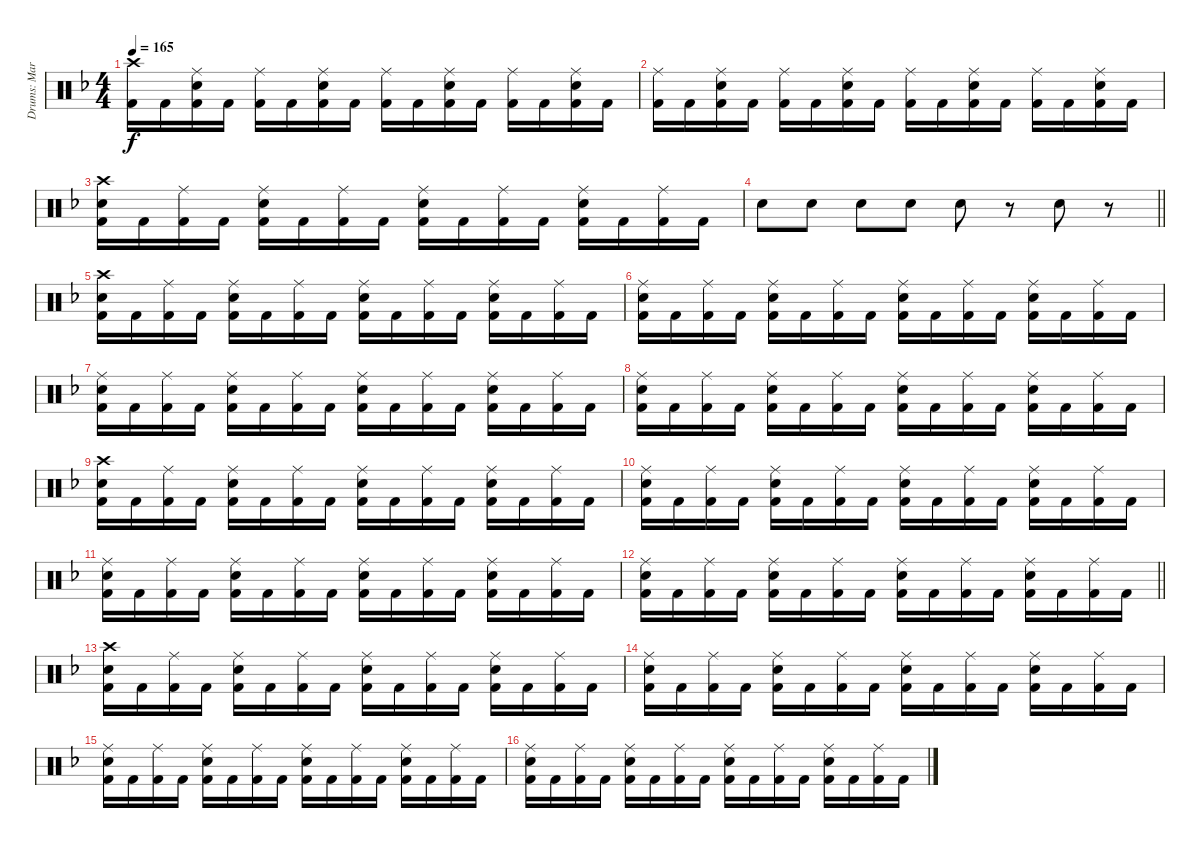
\track ("Drums: Martin Herzinger" "Drums: Mar") {instrument percussion}
\staff {score}
\articulation defaults
\ts (4 4)
\tempo 165
\clef neutral
\ks dminor
("Crash high (hit)" "Kick (hit) 2").16{dy f} "Kick (hit) 2".16 ("Ride (middle)" "Snare (hit) 2" "Kick (hit) 2").16 "Kick (hit) 2".16 ("Ride (middle)" "Kick (hit) 2").16 "Kick (hit) 2".16 ("Ride (middle)" "Snare (hit) 2" "Kick (hit) 2").16 "Kick (hit) 2".16 ("Ride (middle)" "Kick (hit) 2").16 "Kick (hit) 2".16 ("Ride (middle)" "Snare (hit) 2" "Kick (hit) 2").16 "Kick (hit) 2".16 ("Ride (middle)" "Kick (hit) 2").16 "Kick (hit) 2".16 ("Ride (middle)" "Snare (hit) 2" "Kick (hit) 2").16 "Kick (hit) 2".16 |
("Ride (middle)" "Kick (hit) 2").16 "Kick (hit) 2".16 ("Ride (middle)" "Snare (hit) 2" "Kick (hit) 2").16 "Kick (hit) 2".16 ("Ride (middle)" "Kick (hit) 2").16 "Kick (hit) 2".16 ("Ride (middle)" "Snare (hit) 2" "Kick (hit) 2").16 "Kick (hit) 2".16 ("Ride (middle)" "Kick (hit) 2").16 "Kick (hit) 2".16 ("Ride (middle)" "Snare (hit) 2" "Kick (hit) 2").16 "Kick (hit) 2".16 ("Ride (middle)" "Kick (hit) 2").16 "Kick (hit) 2".16 ("Ride (middle)" "Snare (hit) 2" "Kick (hit) 2").16 "Kick (hit) 2".16 |
("Crash high (hit)" "Snare (hit) 2" "Kick (hit) 2").16 "Kick (hit) 2".16 ("Ride (middle)" "Kick (hit) 2").16 "Kick (hit) 2".16 ("Ride (middle)" "Snare (hit) 2" "Kick (hit) 2").16 "Kick (hit) 2".16 ("Ride (middle)" "Kick (hit) 2").16 "Kick (hit) 2".16 ("Ride (middle)" "Snare (hit) 2" "Kick (hit) 2").16 "Kick (hit) 2".16 ("Ride (middle)" "Kick (hit) 2").16 "Kick (hit) 2".16 ("Ride (middle)" "Snare (hit) 2" "Kick (hit) 2").16 "Kick (hit) 2".16 ("Ride (middle)" "Kick (hit) 2").16 "Kick (hit) 2".16 |
\barLineRight lightlight "Snare (hit) 2".8 "Snare (hit) 2".8 "Snare (hit) 2".8 "Snare (hit) 2".8 "Snare (hit) 2".8
r.8 "Snare (hit) 2".8 r.8 |
("Crash high (hit)" "Snare (hit) 2" "Kick (hit) 2").16 "Kick (hit) 2".16 ("Ride (middle)" "Kick (hit) 2").16 "Kick (hit) 2".16 ("Ride (middle)" "Snare (hit) 2" "Kick (hit) 2").16 "Kick (hit) 2".16 ("Ride (middle)" "Kick (hit) 2").16 "Kick (hit) 2".16 ("Ride (middle)" "Snare (hit) 2" "Kick (hit) 2").16 "Kick (hit) 2".16 ("Ride (middle)" "Kick (hit) 2").16 "Kick (hit) 2".16 ("Ride (middle)" "Snare (hit) 2" "Kick (hit) 2").16 "Kick (hit) 2".16 ("Ride (middle)" "Kick (hit) 2").16 "Kick (hit) 2".16 |
("Ride (middle)" "Snare (hit) 2" "Kick (hit) 2").16 "Kick (hit) 2".16 ("Ride (middle)" "Kick (hit) 2").16 "Kick (hit) 2".16 ("Ride (middle)" "Snare (hit) 2" "Kick (hit) 2").16 "Kick (hit) 2".16 ("Ride (middle)" "Kick (hit) 2").16 "Kick (hit) 2".16 ("Ride (middle)" "Snare (hit) 2" "Kick (hit) 2").16 "Kick (hit) 2".16 ("Ride (middle)" "Kick (hit) 2").16 "Kick (hit) 2".16 ("Ride (middle)" "Snare (hit) 2" "Kick (hit) 2").16 "Kick (hit) 2".16 ("Ride (middle)" "Kick (hit) 2").16 "Kick (hit) 2".16 |
("Ride (middle)" "Snare (hit) 2" "Kick (hit) 2").16 "Kick (hit) 2".16 ("Ride (middle)" "Kick (hit) 2").16 "Kick (hit) 2".16 ("Ride (middle)" "Snare (hit) 2" "Kick (hit) 2").16 "Kick (hit) 2".16 ("Ride (middle)" "Kick (hit) 2").16 "Kick (hit) 2".16 ("Ride (middle)" "Snare (hit) 2" "Kick (hit) 2").16 "Kick (hit) 2".16 ("Ride (middle)" "Kick (hit) 2").16 "Kick (hit) 2".16 ("Ride (middle)" "Snare (hit) 2" "Kick (hit) 2").16 "Kick (hit) 2".16 ("Ride (middle)" "Kick (hit) 2").16 "Kick (hit) 2".16 |
("Ride (middle)" "Snare (hit) 2" "Kick (hit) 2").16 "Kick (hit) 2".16 ("Ride (middle)" "Kick (hit) 2").16 "Kick (hit) 2".16 ("Ride (middle)" "Snare (hit) 2" "Kick (hit) 2").16 "Kick (hit) 2".16 ("Ride (middle)" "Kick (hit) 2").16 "Kick (hit) 2".16 ("Ride (middle)" "Snare (hit) 2" "Kick (hit) 2").16 "Kick (hit) 2".16 ("Ride (middle)" "Kick (hit) 2").16 "Kick (hit) 2".16 ("Ride (middle)" "Snare (hit) 2" "Kick (hit) 2").16 "Kick (hit) 2".16 ("Ride (middle)" "Kick (hit) 2").16 "Kick (hit) 2".16 |
("Crash high (hit)" "Snare (hit) 2" "Kick (hit) 2").16 "Kick (hit) 2".16 ("Ride (middle)" "Kick (hit) 2").16 "Kick (hit) 2".16 ("Ride (middle)" "Snare (hit) 2" "Kick (hit) 2").16 "Kick (hit) 2".16 ("Ride (middle)" "Kick (hit) 2").16 "Kick (hit) 2".16 ("Ride (middle)" "Snare (hit) 2" "Kick (hit) 2").16 "Kick (hit) 2".16 ("Ride (middle)" "Kick (hit) 2").16 "Kick (hit) 2".16 ("Ride (middle)" "Snare (hit) 2" "Kick (hit) 2").16 "Kick (hit) 2".16 ("Ride (middle)" "Kick (hit) 2").16 "Kick (hit) 2".16 |
("Ride (middle)" "Snare (hit) 2" "Kick (hit) 2").16 "Kick (hit) 2".16 ("Ride (middle)" "Kick (hit) 2").16 "Kick (hit) 2".16 ("Ride (middle)" "Snare (hit) 2" "Kick (hit) 2").16 "Kick (hit) 2".16 ("Ride (middle)" "Kick (hit) 2").16 "Kick (hit) 2".16 ("Ride (middle)" "Snare (hit) 2" "Kick (hit) 2").16 "Kick (hit) 2".16 ("Ride (middle)" "Kick (hit) 2").16 "Kick (hit) 2".16 ("Ride (middle)" "Snare (hit) 2" "Kick (hit) 2").16 "Kick (hit) 2".16 ("Ride (middle)" "Kick (hit) 2").16 "Kick (hit) 2".16 |
("Ride (middle)" "Snare (hit) 2" "Kick (hit) 2").16 "Kick (hit) 2".16 ("Ride (middle)" "Kick (hit) 2").16 "Kick (hit) 2".16 ("Ride (middle)" "Snare (hit) 2" "Kick (hit) 2").16 "Kick (hit) 2".16 ("Ride (middle)" "Kick (hit) 2").16 "Kick (hit) 2".16 ("Ride (middle)" "Snare (hit) 2" "Kick (hit) 2").16 "Kick (hit) 2".16 ("Ride (middle)" "Kick (hit) 2").16 "Kick (hit) 2".16 ("Ride (middle)" "Snare (hit) 2" "Kick (hit) 2").16 "Kick (hit) 2".16 ("Ride (middle)" "Kick (hit) 2").16 "Kick (hit) 2".16 |
\barLineRight lightlight
("Ride (middle)" "Snare (hit) 2" "Kick (hit) 2").16 "Kick (hit) 2".16 ("Ride (middle)" "Kick (hit) 2").16 "Kick (hit) 2".16 ("Ride (middle)" "Snare (hit) 2" "Kick (hit) 2").16 "Kick (hit) 2".16 ("Ride (middle)" "Kick (hit) 2").16 "Kick (hit) 2".16 ("Ride (middle)" "Snare (hit) 2" "Kick (hit) 2").16 "Kick (hit) 2".16 ("Ride (middle)" "Kick (hit) 2").16 "Kick (hit) 2".16 ("Ride (middle)" "Snare (hit) 2" "Kick (hit) 2").16 "Kick (hit) 2".16 ("Ride (middle)" "Kick (hit) 2").16 "Kick (hit) 2".16 |
("Crash high (hit)" "Snare (hit) 2" "Kick (hit) 2").16 "Kick (hit) 2".16 ("Ride (middle)" "Kick (hit) 2").16 "Kick (hit) 2".16 ("Ride (middle)" "Snare (hit) 2" "Kick (hit) 2").16 "Kick (hit) 2".16 ("Ride (middle)" "Kick (hit) 2").16 "Kick (hit) 2".16 ("Ride (middle)" "Snare (hit) 2" "Kick (hit) 2").16 "Kick (hit) 2".16 ("Ride (middle)" "Kick (hit) 2").16 "Kick (hit) 2".16 ("Ride (middle)" "Snare (hit) 2" "Kick (hit) 2").16 "Kick (hit) 2".16 ("Ride (middle)" "Kick (hit) 2").16 "Kick (hit) 2".16 |
("Ride (middle)" "Snare (hit) 2" "Kick (hit) 2").16 "Kick (hit) 2".16 ("Ride (middle)" "Kick (hit) 2").16 "Kick (hit) 2".16 ("Ride (middle)" "Snare (hit) 2" "Kick (hit) 2").16 "Kick (hit) 2".16 ("Ride (middle)" "Kick (hit) 2").16 "Kick (hit) 2".16 ("Ride (middle)" "Snare (hit) 2" "Kick (hit) 2").16 "Kick (hit) 2".16 ("Ride (middle)" "Kick (hit) 2").16 "Kick (hit) 2".16 ("Ride (middle)" "Snare (hit) 2" "Kick (hit) 2").16 "Kick (hit) 2".16 ("Ride (middle)" "Kick (hit) 2").16 "Kick (hit) 2".16 |
("Ride (middle)" "Snare (hit) 2" "Kick (hit) 2").16 "Kick (hit) 2".16 ("Ride (middle)" "Kick (hit) 2").16 "Kick (hit) 2".16 ("Ride (middle)" "Snare (hit) 2" "Kick (hit) 2").16 "Kick (hit) 2".16 ("Ride (middle)" "Kick (hit) 2").16 "Kick (hit) 2".16 ("Ride (middle)" "Snare (hit) 2" "Kick (hit) 2").16 "Kick (hit) 2".16 ("Ride (middle)" "Kick (hit) 2").16 "Kick (hit) 2".16 ("Ride (middle)" "Snare (hit) 2" "Kick (hit) 2").16 "Kick (hit) 2".16 ("Ride (middle)" "Kick (hit) 2").16 "Kick (hit) 2".16 |
("Ride (middle)" "Snare (hit) 2" "Kick (hit) 2").16 "Kick (hit) 2".16 ("Ride (middle)" "Kick (hit) 2").16 "Kick (hit) 2".16 ("Ride (middle)" "Snare (hit) 2" "Kick (hit) 2").16 "Kick (hit) 2".16 ("Ride (middle)" "Kick (hit) 2").16 "Kick (hit) 2".16 ("Ride (middle)" "Snare (hit) 2" "Kick (hit) 2").16 "Kick (hit) 2".16 ("Ride (middle)" "Kick (hit) 2").16 "Kick (hit) 2".16 ("Ride (middle)" "Snare (hit) 2" "Kick (hit) 2").16 "Kick (hit) 2".16 ("Ride (middle)" "Kick (hit) 2").16 "Kick (hit) 2".16
